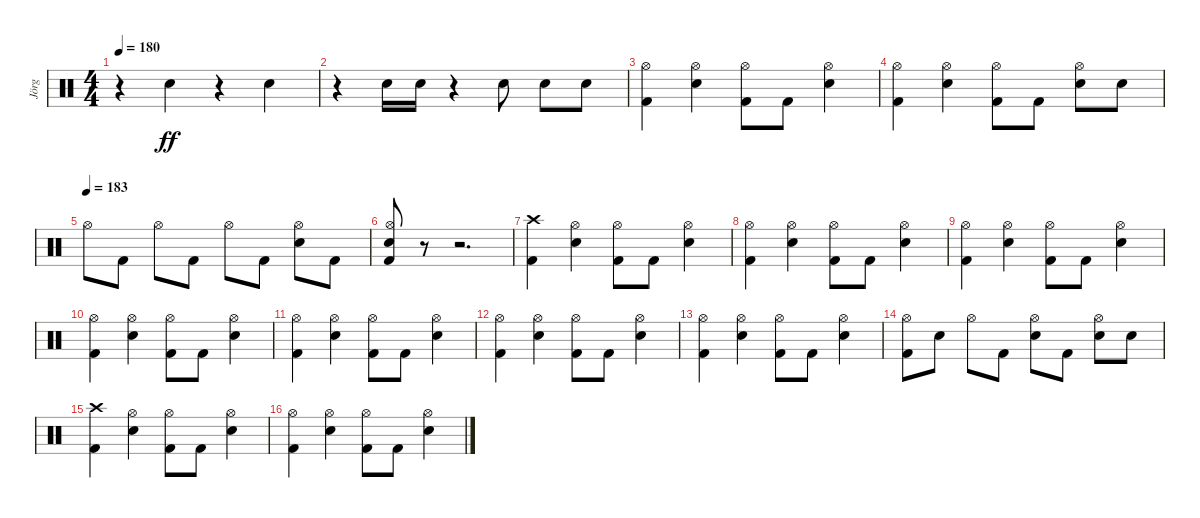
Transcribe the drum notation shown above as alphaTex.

\track ("Jörg" "Jörg") {instrument percussion}
\staff {score}
\articulation defaults
\ts (4 4)
\tempo 180
\clef neutral
\ks c
r.4{dy ff} "Snare (hit) 2".4 r.4 "Snare (hit) 2".4 |
r.4 "Snare (hit) 2".16 "Snare (hit) 2".16 r.4 "Snare (hit) 2".8 "Snare (hit) 2".8 "Snare (hit) 2".8 |
("Hi-Hat (open)" "Kick (hit) 2").4 ("Hi-Hat (open)" "Snare (hit) 2").4 ("Hi-Hat (open)" "Kick (hit) 2").8 "Kick (hit) 2".8 ("Hi-Hat (open)" "Snare (hit) 2").4 |
("Hi-Hat (open)" "Kick (hit) 2").4 ("Hi-Hat (open)" "Snare (hit) 2").4 ("Hi-Hat (open)" "Kick (hit) 2").8 "Kick (hit) 2".8 ("Hi-Hat (open)" "Snare (hit) 2").8 "Snare (hit) 2".8 |
\tempo (183)
"Hi-Hat (open)".8 "Kick (hit) 2".8 "Hi-Hat (open)".8 "Kick (hit) 2".8 "Hi-Hat (open)".8 "Kick (hit) 2".8 ("Snare (hit) 2" "Hi-Hat (open)").8 "Kick (hit) 2".8 |
("Kick (hit) 2" "Snare (hit) 2" "Hi-Hat (open)").8 r.8 r.2{d} |
("Kick (hit) 2" "Crash high (hit)").4 ("Snare (hit) 2" "Hi-Hat (open)").4 ("Kick (hit) 2" "Hi-Hat (open)").8 "Kick (hit) 2".8 ("Snare (hit) 2" "Hi-Hat (open)").4 |
("Kick (hit) 2" "Hi-Hat (open)").4 ("Snare (hit) 2" "Hi-Hat (open)").4 ("Kick (hit) 2" "Hi-Hat (open)").8 "Kick (hit) 2".8 ("Snare (hit) 2" "Hi-Hat (open)").4 |
("Kick (hit) 2" "Hi-Hat (open)").4 ("Snare (hit) 2" "Hi-Hat (open)").4 ("Kick (hit) 2" "Hi-Hat (open)").8 "Kick (hit) 2".8 ("Snare (hit) 2" "Hi-Hat (open)").4 |
("Kick (hit) 2" "Hi-Hat (open)").4 ("Snare (hit) 2" "Hi-Hat (open)").4 ("Kick (hit) 2" "Hi-Hat (open)").8 "Kick (hit) 2".8 ("Snare (hit) 2" "Hi-Hat (open)").4 |
("Kick (hit) 2" "Hi-Hat (open)").4 ("Snare (hit) 2" "Hi-Hat (open)").4 ("Kick (hit) 2" "Hi-Hat (open)").8 "Kick (hit) 2".8 ("Snare (hit) 2" "Hi-Hat (open)").4 |
("Kick (hit) 2" "Hi-Hat (open)").4 ("Snare (hit) 2" "Hi-Hat (open)").4 ("Kick (hit) 2" "Hi-Hat (open)").8 "Kick (hit) 2".8 ("Snare (hit) 2" "Hi-Hat (open)").4 |
("Kick (hit) 2" "Hi-Hat (open)").4 ("Snare (hit) 2" "Hi-Hat (open)").4 ("Kick (hit) 2" "Hi-Hat (open)").8 "Kick (hit) 2".8 ("Snare (hit) 2" "Hi-Hat (open)").4 |
("Kick (hit) 2" "Hi-Hat (open)").8 "Snare (hit) 2".8 "Hi-Hat (open)".8 "Kick (hit) 2".8 ("Snare (hit) 2" "Hi-Hat (open)").8 "Kick (hit) 2".8 ("Snare (hit) 2" "Hi-Hat (open)").8 "Snare (hit) 2".8 |
("Kick (hit) 2" "Crash high (hit)").4 ("Snare (hit) 2" "Hi-Hat (open)").4 ("Kick (hit) 2" "Hi-Hat (open)").8 "Kick (hit) 2".8 ("Snare (hit) 2" "Hi-Hat (open)").4 |
("Kick (hit) 2" "Hi-Hat (open)").4 ("Snare (hit) 2" "Hi-Hat (open)").4 ("Kick (hit) 2" "Hi-Hat (open)").8 "Kick (hit) 2".8 ("Snare (hit) 2" "Hi-Hat (open)").4
